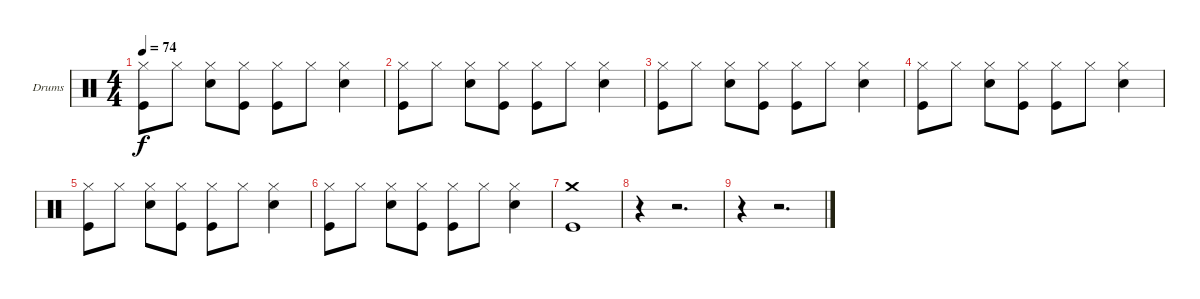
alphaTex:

\bracketExtendMode groupsimilarinstruments
\firstSystemTrackNameOrientation horizontal
\otherSystemsTrackNameOrientation horizontal
\track ("Drumkit" "Drums") {instrument percussion}
\staff {score}
\articulation defaults
\ts (4 4)
\tempo 74
\clef neutral
\ks c
("Kick (hit)" "Hi-Hat (closed)").8{dy f} "Hi-Hat (closed)".8 ("Snare (hit) 2" "Hi-Hat (closed)").8 ("Kick (hit)" "Hi-Hat (closed)").8 ("Kick (hit)" "Hi-Hat (closed)").8 "Hi-Hat (closed)".8 ("Snare (hit) 2" "Hi-Hat (closed)").4 |
("Kick (hit)" "Hi-Hat (closed)").8 "Hi-Hat (closed)".8 ("Snare (hit) 2" "Hi-Hat (closed)").8 ("Kick (hit)" "Hi-Hat (closed)").8 ("Kick (hit)" "Hi-Hat (closed)").8 "Hi-Hat (closed)".8 ("Snare (hit) 2" "Hi-Hat (closed)").4 |
("Kick (hit)" "Hi-Hat (closed)").8 "Hi-Hat (closed)".8 ("Snare (hit) 2" "Hi-Hat (closed)").8 ("Kick (hit)" "Hi-Hat (closed)").8 ("Kick (hit)" "Hi-Hat (closed)").8 "Hi-Hat (closed)".8 ("Snare (hit) 2" "Hi-Hat (closed)").4 |
("Kick (hit)" "Hi-Hat (closed)").8 "Hi-Hat (closed)".8 ("Snare (hit) 2" "Hi-Hat (closed)").8 ("Kick (hit)" "Hi-Hat (closed)").8 ("Kick (hit)" "Hi-Hat (closed)").8 "Hi-Hat (closed)".8 ("Snare (hit) 2" "Hi-Hat (closed)").4 |
("Kick (hit)" "Hi-Hat (closed)").8 "Hi-Hat (closed)".8 ("Snare (hit) 2" "Hi-Hat (closed)").8 ("Kick (hit)" "Hi-Hat (closed)").8 ("Kick (hit)" "Hi-Hat (closed)").8 "Hi-Hat (closed)".8 ("Snare (hit) 2" "Hi-Hat (closed)").4 |
("Kick (hit)" "Hi-Hat (closed)").8 "Hi-Hat (closed)".8 ("Snare (hit) 2" "Hi-Hat (closed)").8 ("Kick (hit)" "Hi-Hat (closed)").8 ("Kick (hit)" "Hi-Hat (closed)").8 "Hi-Hat (closed)".8 ("Snare (hit) 2" "Hi-Hat (closed)").4 |
("Kick (hit)" "Crash medium (hit)").1 |
r.4 r.2{d} |
r.4 r.2{d}
